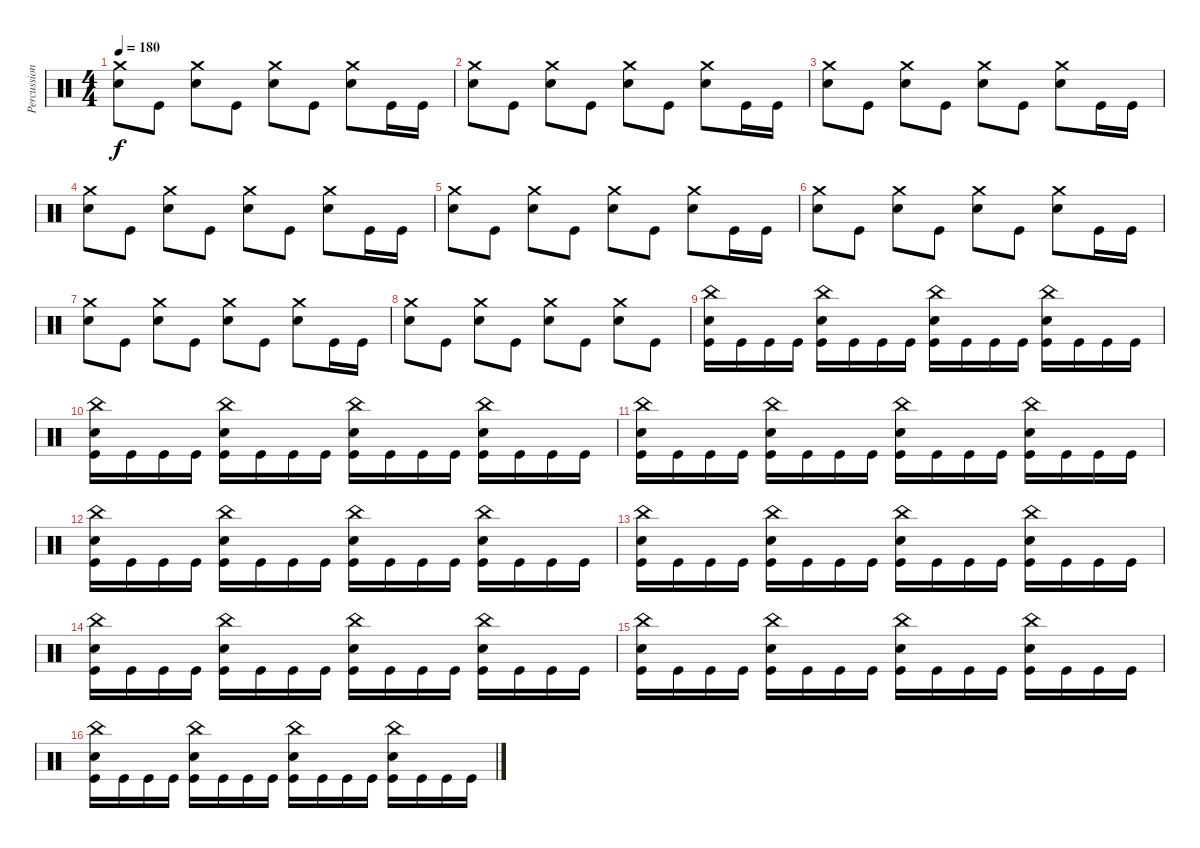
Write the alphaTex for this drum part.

\track ("Percussion" "Percussion") {instrument percussion}
\staff {score}
\articulation defaults
\ts (4 4)
\tempo 180
\clef neutral
\ks c
("Crash medium (hit)" "Snare (hit) 2").8{dy f} "Kick (hit)".8 ("Crash medium (hit)" "Snare (hit) 2").8 "Kick (hit)".8 ("Crash medium (hit)" "Snare (hit) 2").8 "Kick (hit)".8 ("Crash medium (hit)" "Snare (hit) 2").8 "Kick (hit)".16 "Kick (hit)".16 |
("Crash medium (hit)" "Snare (hit) 2").8 "Kick (hit)".8 ("Crash medium (hit)" "Snare (hit) 2").8 "Kick (hit)".8 ("Crash medium (hit)" "Snare (hit) 2").8 "Kick (hit)".8 ("Crash medium (hit)" "Snare (hit) 2").8 "Kick (hit)".16 "Kick (hit)".16 |
("Crash medium (hit)" "Snare (hit) 2").8 "Kick (hit)".8 ("Crash medium (hit)" "Snare (hit) 2").8 "Kick (hit)".8 ("Crash medium (hit)" "Snare (hit) 2").8 "Kick (hit)".8 ("Crash medium (hit)" "Snare (hit) 2").8 "Kick (hit)".16 "Kick (hit)".16 |
("Crash medium (hit)" "Snare (hit) 2").8 "Kick (hit)".8 ("Crash medium (hit)" "Snare (hit) 2").8 "Kick (hit)".8 ("Crash medium (hit)" "Snare (hit) 2").8 "Kick (hit)".8 ("Crash medium (hit)" "Snare (hit) 2").8 "Kick (hit)".16 "Kick (hit)".16 |
("Crash medium (hit)" "Snare (hit) 2").8 "Kick (hit)".8 ("Crash medium (hit)" "Snare (hit) 2").8 "Kick (hit)".8 ("Crash medium (hit)" "Snare (hit) 2").8 "Kick (hit)".8 ("Crash medium (hit)" "Snare (hit) 2").8 "Kick (hit)".16 "Kick (hit)".16 |
("Crash medium (hit)" "Snare (hit) 2").8 "Kick (hit)".8 ("Crash medium (hit)" "Snare (hit) 2").8 "Kick (hit)".8 ("Crash medium (hit)" "Snare (hit) 2").8 "Kick (hit)".8 ("Crash medium (hit)" "Snare (hit) 2").8 "Kick (hit)".16 "Kick (hit)".16 |
("Crash medium (hit)" "Snare (hit) 2").8 "Kick (hit)".8 ("Crash medium (hit)" "Snare (hit) 2").8 "Kick (hit)".8 ("Crash medium (hit)" "Snare (hit) 2").8 "Kick (hit)".8 ("Crash medium (hit)" "Snare (hit) 2").8 "Kick (hit)".16 "Kick (hit)".16 |
("Crash medium (hit)" "Snare (hit) 2").8 "Kick (hit)".8 ("Crash medium (hit)" "Snare (hit) 2").8 "Kick (hit)".8 ("Crash medium (hit)" "Snare (hit) 2").8 "Kick (hit)".8 ("Crash medium (hit)" "Snare (hit) 2").8 "Kick (hit)".8 |
("China (hit)" "Snare (hit) 2" "Kick (hit)").16 "Kick (hit)".16 "Kick (hit)".16 "Kick (hit)".16 ("China (hit)" "Snare (hit) 2" "Kick (hit)").16 "Kick (hit)".16 "Kick (hit)".16 "Kick (hit)".16 ("China (hit)" "Snare (hit) 2" "Kick (hit)").16 "Kick (hit)".16 "Kick (hit)".16 "Kick (hit)".16 ("China (hit)" "Snare (hit) 2" "Kick (hit)").16 "Kick (hit)".16 "Kick (hit)".16 "Kick (hit)".16 |
("China (hit)" "Snare (hit) 2" "Kick (hit)").16 "Kick (hit)".16 "Kick (hit)".16 "Kick (hit)".16 ("China (hit)" "Snare (hit) 2" "Kick (hit)").16 "Kick (hit)".16 "Kick (hit)".16 "Kick (hit)".16 ("China (hit)" "Snare (hit) 2" "Kick (hit)").16 "Kick (hit)".16 "Kick (hit)".16 "Kick (hit)".16 ("China (hit)" "Snare (hit) 2" "Kick (hit)").16 "Kick (hit)".16 "Kick (hit)".16 "Kick (hit)".16 |
("China (hit)" "Snare (hit) 2" "Kick (hit)").16 "Kick (hit)".16 "Kick (hit)".16 "Kick (hit)".16 ("China (hit)" "Snare (hit) 2" "Kick (hit)").16 "Kick (hit)".16 "Kick (hit)".16 "Kick (hit)".16 ("China (hit)" "Snare (hit) 2" "Kick (hit)").16 "Kick (hit)".16 "Kick (hit)".16 "Kick (hit)".16 ("China (hit)" "Snare (hit) 2" "Kick (hit)").16 "Kick (hit)".16 "Kick (hit)".16 "Kick (hit)".16 |
("China (hit)" "Snare (hit) 2" "Kick (hit)").16 "Kick (hit)".16 "Kick (hit)".16 "Kick (hit)".16 ("China (hit)" "Snare (hit) 2" "Kick (hit)").16 "Kick (hit)".16 "Kick (hit)".16 "Kick (hit)".16 ("China (hit)" "Snare (hit) 2" "Kick (hit)").16 "Kick (hit)".16 "Kick (hit)".16 "Kick (hit)".16 ("China (hit)" "Snare (hit) 2" "Kick (hit)").16 "Kick (hit)".16 "Kick (hit)".16 "Kick (hit)".16 |
("China (hit)" "Snare (hit) 2" "Kick (hit)").16 "Kick (hit)".16 "Kick (hit)".16 "Kick (hit)".16 ("China (hit)" "Snare (hit) 2" "Kick (hit)").16 "Kick (hit)".16 "Kick (hit)".16 "Kick (hit)".16 ("China (hit)" "Snare (hit) 2" "Kick (hit)").16 "Kick (hit)".16 "Kick (hit)".16 "Kick (hit)".16 ("China (hit)" "Snare (hit) 2" "Kick (hit)").16 "Kick (hit)".16 "Kick (hit)".16 "Kick (hit)".16 |
("China (hit)" "Snare (hit) 2" "Kick (hit)").16 "Kick (hit)".16 "Kick (hit)".16 "Kick (hit)".16 ("China (hit)" "Snare (hit) 2" "Kick (hit)").16 "Kick (hit)".16 "Kick (hit)".16 "Kick (hit)".16 ("China (hit)" "Snare (hit) 2" "Kick (hit)").16 "Kick (hit)".16 "Kick (hit)".16 "Kick (hit)".16 ("China (hit)" "Snare (hit) 2" "Kick (hit)").16 "Kick (hit)".16 "Kick (hit)".16 "Kick (hit)".16 |
("China (hit)" "Snare (hit) 2" "Kick (hit)").16 "Kick (hit)".16 "Kick (hit)".16 "Kick (hit)".16 ("China (hit)" "Snare (hit) 2" "Kick (hit)").16 "Kick (hit)".16 "Kick (hit)".16 "Kick (hit)".16 ("China (hit)" "Snare (hit) 2" "Kick (hit)").16 "Kick (hit)".16 "Kick (hit)".16 "Kick (hit)".16 ("China (hit)" "Snare (hit) 2" "Kick (hit)").16 "Kick (hit)".16 "Kick (hit)".16 "Kick (hit)".16 |
("China (hit)" "Snare (hit) 2" "Kick (hit)").16 "Kick (hit)".16 "Kick (hit)".16 "Kick (hit)".16 ("China (hit)" "Snare (hit) 2" "Kick (hit)").16 "Kick (hit)".16 "Kick (hit)".16 "Kick (hit)".16 ("China (hit)" "Snare (hit) 2" "Kick (hit)").16 "Kick (hit)".16 "Kick (hit)".16 "Kick (hit)".16 ("China (hit)" "Snare (hit) 2" "Kick (hit)").16 "Kick (hit)".16 "Kick (hit)".16 "Kick (hit)".16
